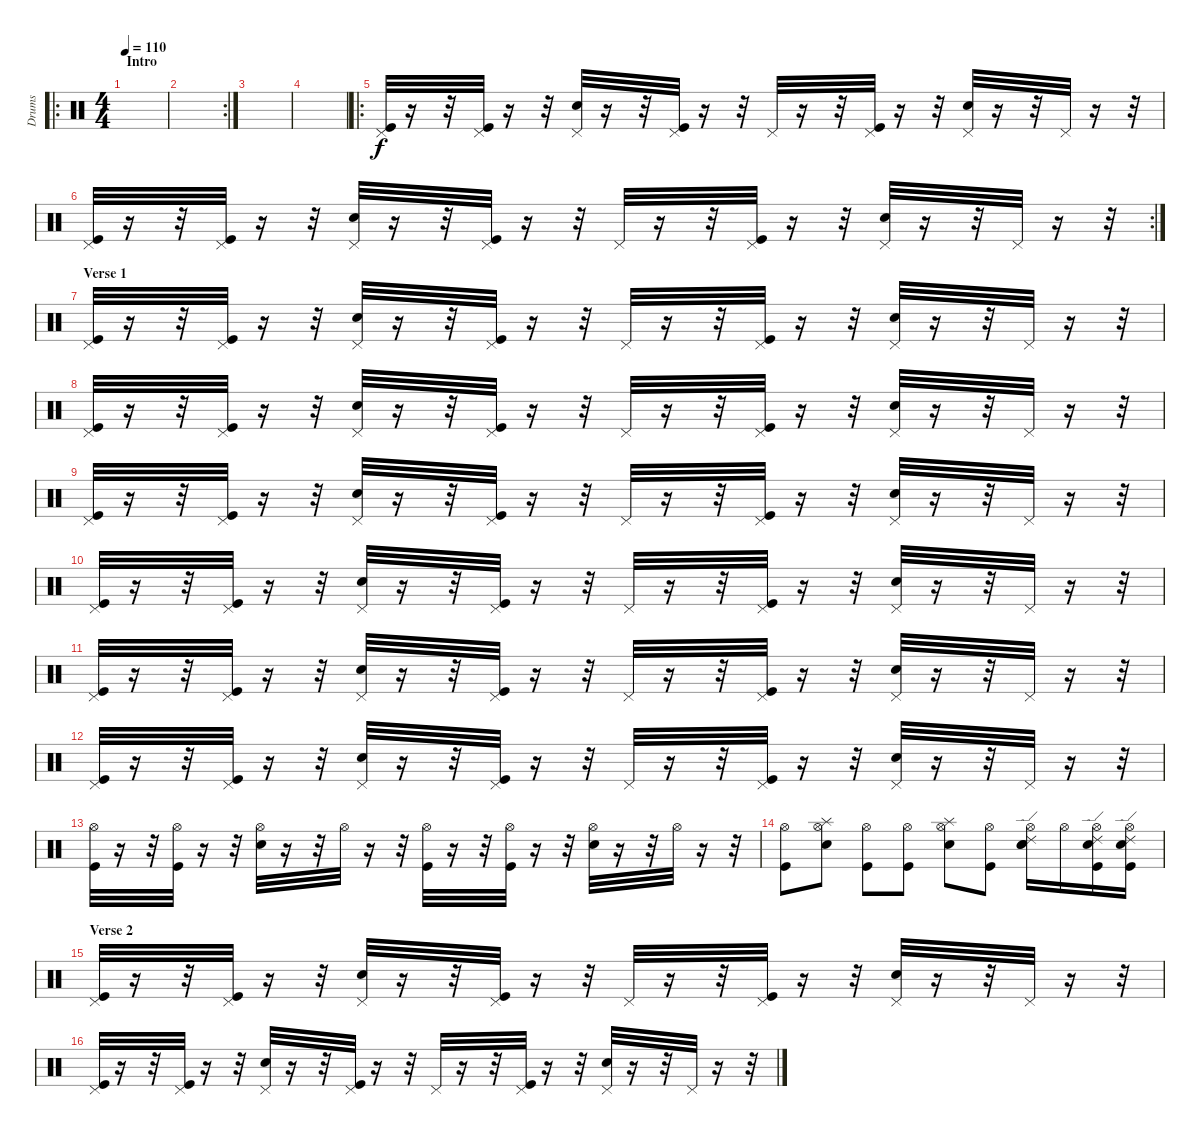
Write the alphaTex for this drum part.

\track ("Drums" "Drums") {instrument percussion}
\staff {score}
\articulation defaults
\ro
\ts (4 4)
\section ("" "Intro")
\tempo 110
\clef neutral
\ks c
|
\rc 2
|
|
|
\ro
("Pedal Hi-Hat (hit)" "Kick (hit)").32 r.16 r.32 ("Pedal Hi-Hat (hit)" "Kick (hit)").32 r.16 r.32 ("Pedal Hi-Hat (hit)" "Electric Snare (hit)").32 r.16 r.32 ("Pedal Hi-Hat (hit)" "Kick (hit)").32 r.16 r.32 "Pedal Hi-Hat (hit)".32 r.16 r.32 ("Pedal Hi-Hat (hit)" "Kick (hit)").32 r.16 r.32 ("Pedal Hi-Hat (hit)" "Electric Snare (hit)").32 r.16 r.32 "Pedal Hi-Hat (hit)".32 r.16 r.32 |
\rc 2
("Pedal Hi-Hat (hit)" "Kick (hit)").32 r.16 r.32 ("Pedal Hi-Hat (hit)" "Kick (hit)").32 r.16 r.32 ("Pedal Hi-Hat (hit)" "Electric Snare (hit)").32 r.16 r.32 ("Pedal Hi-Hat (hit)" "Kick (hit)").32 r.16 r.32 "Pedal Hi-Hat (hit)".32 r.16 r.32 ("Pedal Hi-Hat (hit)" "Kick (hit)").32 r.16 r.32 ("Pedal Hi-Hat (hit)" "Electric Snare (hit)").32 r.16 r.32 "Pedal Hi-Hat (hit)".32 r.16 r.32 |
\section ("" "Verse 1")
("Pedal Hi-Hat (hit)" "Kick (hit)").32 r.16 r.32 ("Pedal Hi-Hat (hit)" "Kick (hit)").32 r.16 r.32 ("Pedal Hi-Hat (hit)" "Electric Snare (hit)").32 r.16 r.32 ("Pedal Hi-Hat (hit)" "Kick (hit)").32 r.16 r.32 "Pedal Hi-Hat (hit)".32 r.16 r.32 ("Pedal Hi-Hat (hit)" "Kick (hit)").32 r.16 r.32 ("Pedal Hi-Hat (hit)" "Electric Snare (hit)").32 r.16 r.32 "Pedal Hi-Hat (hit)".32 r.16 r.32 |
("Pedal Hi-Hat (hit)" "Kick (hit)").32 r.16 r.32 ("Pedal Hi-Hat (hit)" "Kick (hit)").32 r.16 r.32 ("Pedal Hi-Hat (hit)" "Electric Snare (hit)").32 r.16 r.32 ("Pedal Hi-Hat (hit)" "Kick (hit)").32 r.16 r.32 "Pedal Hi-Hat (hit)".32 r.16 r.32 ("Pedal Hi-Hat (hit)" "Kick (hit)").32 r.16 r.32 ("Pedal Hi-Hat (hit)" "Electric Snare (hit)").32 r.16 r.32 "Pedal Hi-Hat (hit)".32 r.16 r.32 |
("Pedal Hi-Hat (hit)" "Kick (hit)").32 r.16 r.32 ("Pedal Hi-Hat (hit)" "Kick (hit)").32 r.16 r.32 ("Pedal Hi-Hat (hit)" "Electric Snare (hit)").32 r.16 r.32 ("Pedal Hi-Hat (hit)" "Kick (hit)").32 r.16 r.32 "Pedal Hi-Hat (hit)".32 r.16 r.32 ("Pedal Hi-Hat (hit)" "Kick (hit)").32 r.16 r.32 ("Pedal Hi-Hat (hit)" "Electric Snare (hit)").32 r.16 r.32 "Pedal Hi-Hat (hit)".32 r.16 r.32 |
("Pedal Hi-Hat (hit)" "Kick (hit)").32 r.16 r.32 ("Pedal Hi-Hat (hit)" "Kick (hit)").32 r.16 r.32 ("Pedal Hi-Hat (hit)" "Electric Snare (hit)").32 r.16 r.32 ("Pedal Hi-Hat (hit)" "Kick (hit)").32 r.16 r.32 "Pedal Hi-Hat (hit)".32 r.16 r.32 ("Pedal Hi-Hat (hit)" "Kick (hit)").32 r.16 r.32 ("Pedal Hi-Hat (hit)" "Electric Snare (hit)").32 r.16 r.32 "Pedal Hi-Hat (hit)".32 r.16 r.32 |
("Pedal Hi-Hat (hit)" "Kick (hit)").32 r.16 r.32 ("Pedal Hi-Hat (hit)" "Kick (hit)").32 r.16 r.32 ("Pedal Hi-Hat (hit)" "Electric Snare (hit)").32 r.16 r.32 ("Pedal Hi-Hat (hit)" "Kick (hit)").32 r.16 r.32 "Pedal Hi-Hat (hit)".32 r.16 r.32 ("Pedal Hi-Hat (hit)" "Kick (hit)").32 r.16 r.32 ("Pedal Hi-Hat (hit)" "Electric Snare (hit)").32 r.16 r.32 "Pedal Hi-Hat (hit)".32 r.16 r.32 |
("Pedal Hi-Hat (hit)" "Kick (hit)").32 r.16 r.32 ("Pedal Hi-Hat (hit)" "Kick (hit)").32 r.16 r.32 ("Pedal Hi-Hat (hit)" "Electric Snare (hit)").32 r.16 r.32 ("Pedal Hi-Hat (hit)" "Kick (hit)").32 r.16 r.32 "Pedal Hi-Hat (hit)".32 r.16 r.32 ("Pedal Hi-Hat (hit)" "Kick (hit)").32 r.16 r.32 ("Pedal Hi-Hat (hit)" "Electric Snare (hit)").32 r.16 r.32 "Pedal Hi-Hat (hit)".32 r.16 r.32 |
("Hi-Hat (open)" "Kick (hit)").32 r.16 r.32 ("Hi-Hat (open)" "Kick (hit)").32 r.16 r.32 ("Hi-Hat (open)" "Electric Snare (hit)").32 r.16 r.32 "Hi-Hat (open)".32 r.16 r.32 ("Hi-Hat (open)" "Kick (hit)").32 r.16 r.32 ("Hi-Hat (open)" "Kick (hit)").32 r.16 r.32 ("Hi-Hat (open)" "Electric Snare (hit)").32 r.16 r.32 "Hi-Hat (open)".32 r.16 r.32 |
("Kick (hit)" "Hi-Hat (open)").8 ("Splash (hit)" "Snare (hit) 2" "Hi-Hat (open)").8 ("Kick (hit)" "Hi-Hat (open)").8 ("Kick (hit)" "Hi-Hat (open)").8 ("Splash (hit)" "Snare (hit) 2" "Hi-Hat (open)").8 ("Kick (hit)" "Hi-Hat (open)").8 ("Ride (edge) 2" "Electric Snare (hit)" "Snare (hit) 2" "Hi-Hat (open)").16 "Hi-Hat (open)".16 ("Ride (edge) 2" "Kick (hit)" "Snare (hit) 2" "Hi-Hat (open)").16 ("Ride (edge) 2" "Kick (hit)" "Snare (hit) 2" "Hi-Hat (open)").16 |
\section ("" "Verse 2")
("Pedal Hi-Hat (hit)" "Kick (hit)").32 r.16 r.32 ("Pedal Hi-Hat (hit)" "Kick (hit)").32 r.16 r.32 ("Pedal Hi-Hat (hit)" "Electric Snare (hit)").32 r.16 r.32 ("Pedal Hi-Hat (hit)" "Kick (hit)").32 r.16 r.32 "Pedal Hi-Hat (hit)".32 r.16 r.32 ("Pedal Hi-Hat (hit)" "Kick (hit)").32 r.16 r.32 ("Pedal Hi-Hat (hit)" "Electric Snare (hit)").32 r.16 r.32 "Pedal Hi-Hat (hit)".32 r.16 r.32 |
("Pedal Hi-Hat (hit)" "Kick (hit)").32 r.16 r.32 ("Pedal Hi-Hat (hit)" "Kick (hit)").32 r.16 r.32 ("Pedal Hi-Hat (hit)" "Electric Snare (hit)").32 r.16 r.32 ("Pedal Hi-Hat (hit)" "Kick (hit)").32 r.16 r.32 "Pedal Hi-Hat (hit)".32 r.16 r.32 ("Pedal Hi-Hat (hit)" "Kick (hit)").32 r.16 r.32 ("Pedal Hi-Hat (hit)" "Electric Snare (hit)").32 r.16 r.32 "Pedal Hi-Hat (hit)".32 r.16 r.32
